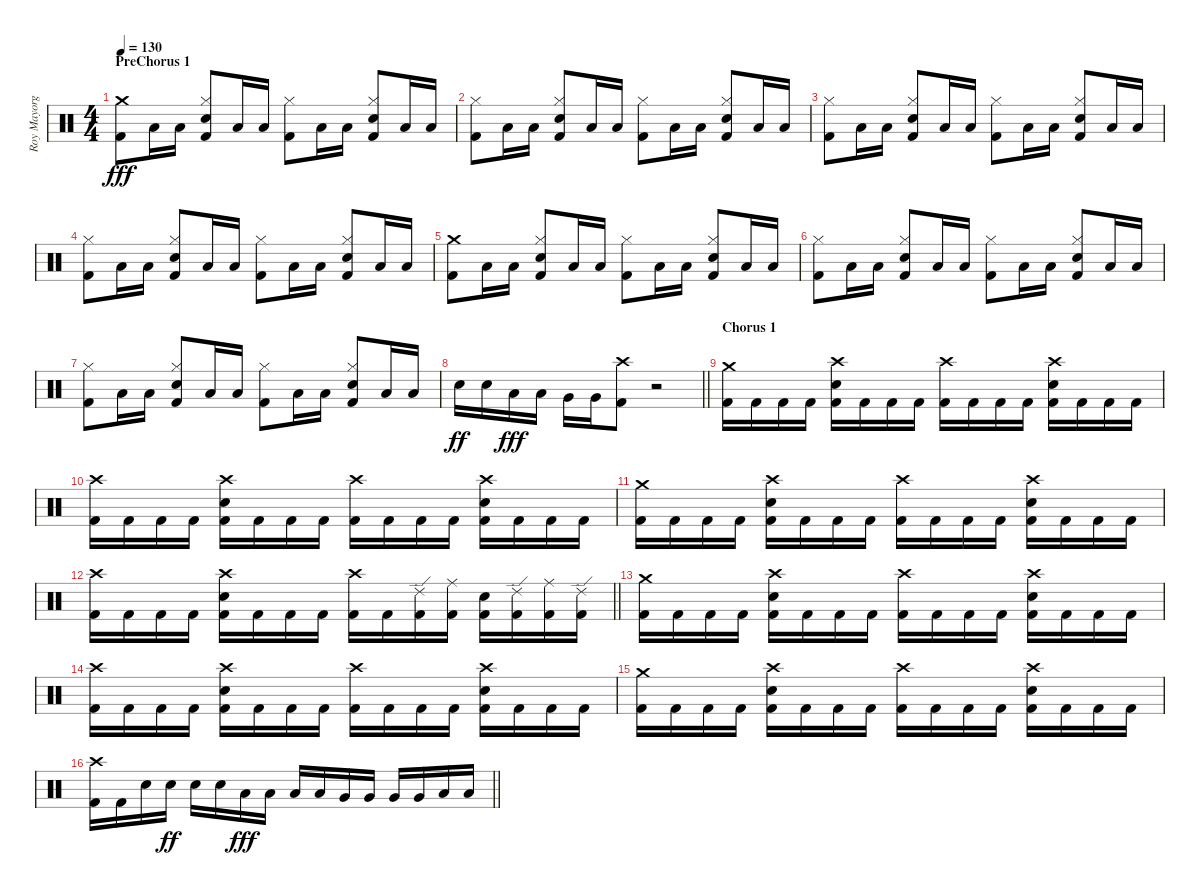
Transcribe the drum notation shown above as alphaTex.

\track ("Roy Mayorga" "Roy Mayorg") {instrument percussion}
\staff {score}
\articulation defaults
\ts (4 4)
\section ("" "PreChorus 1")
\tempo 130
\clef neutral
\ks c
("Crash medium (hit)" "Kick (hit) 2").8{dy fff} "Low Floor Tom (hit)".16 "Low Floor Tom (hit)".16 ("Hi-Hat (closed)" "Electric Snare (hit)" "Kick (hit) 2").8 "Low Floor Tom (hit)".16 "Low Floor Tom (hit)".16 ("Hi-Hat (closed)" "Kick (hit) 2").8 "Low Floor Tom (hit)".16 "Low Floor Tom (hit)".16 ("Hi-Hat (closed)" "Electric Snare (hit)" "Kick (hit) 2").8 "Low Floor Tom (hit)".16 "Low Floor Tom (hit)".16 |
("Hi-Hat (closed)" "Kick (hit) 2").8 "Low Floor Tom (hit)".16 "Low Floor Tom (hit)".16 ("Hi-Hat (closed)" "Electric Snare (hit)" "Kick (hit) 2").8 "Low Floor Tom (hit)".16 "Low Floor Tom (hit)".16 ("Hi-Hat (closed)" "Kick (hit) 2").8 "Low Floor Tom (hit)".16 "Low Floor Tom (hit)".16 ("Hi-Hat (closed)" "Electric Snare (hit)" "Kick (hit) 2").8 "Low Floor Tom (hit)".16 "Low Floor Tom (hit)".16 |
("Hi-Hat (closed)" "Kick (hit) 2").8 "Low Floor Tom (hit)".16 "Low Floor Tom (hit)".16 ("Hi-Hat (closed)" "Electric Snare (hit)" "Kick (hit) 2").8 "Low Floor Tom (hit)".16 "Low Floor Tom (hit)".16 ("Hi-Hat (closed)" "Kick (hit) 2").8 "Low Floor Tom (hit)".16 "Low Floor Tom (hit)".16 ("Hi-Hat (closed)" "Electric Snare (hit)" "Kick (hit) 2").8 "Low Floor Tom (hit)".16 "Low Floor Tom (hit)".16 |
("Hi-Hat (closed)" "Kick (hit) 2").8 "Low Floor Tom (hit)".16 "Low Floor Tom (hit)".16 ("Hi-Hat (closed)" "Electric Snare (hit)" "Kick (hit) 2").8 "Low Floor Tom (hit)".16 "Low Floor Tom (hit)".16 ("Hi-Hat (closed)" "Kick (hit) 2").8 "Low Floor Tom (hit)".16 "Low Floor Tom (hit)".16 ("Hi-Hat (closed)" "Electric Snare (hit)" "Kick (hit) 2").8 "Low Floor Tom (hit)".16 "Low Floor Tom (hit)".16 |
("Crash medium (hit)" "Kick (hit) 2").8 "Low Floor Tom (hit)".16 "Low Floor Tom (hit)".16 ("Hi-Hat (closed)" "Electric Snare (hit)" "Kick (hit) 2").8 "Low Floor Tom (hit)".16 "Low Floor Tom (hit)".16 ("Hi-Hat (closed)" "Kick (hit) 2").8 "Low Floor Tom (hit)".16 "Low Floor Tom (hit)".16 ("Hi-Hat (closed)" "Electric Snare (hit)" "Kick (hit) 2").8 "Low Floor Tom (hit)".16 "Low Floor Tom (hit)".16 |
("Hi-Hat (closed)" "Kick (hit) 2").8 "Low Floor Tom (hit)".16 "Low Floor Tom (hit)".16 ("Hi-Hat (closed)" "Electric Snare (hit)" "Kick (hit) 2").8 "Low Floor Tom (hit)".16 "Low Floor Tom (hit)".16 ("Hi-Hat (closed)" "Kick (hit) 2").8 "Low Floor Tom (hit)".16 "Low Floor Tom (hit)".16 ("Hi-Hat (closed)" "Electric Snare (hit)" "Kick (hit) 2").8 "Low Floor Tom (hit)".16 "Low Floor Tom (hit)".16 |
("Hi-Hat (closed)" "Kick (hit) 2").8 "Low Floor Tom (hit)".16 "Low Floor Tom (hit)".16 ("Hi-Hat (closed)" "Electric Snare (hit)" "Kick (hit) 2").8 "Low Floor Tom (hit)".16 "Low Floor Tom (hit)".16 ("Hi-Hat (closed)" "Kick (hit) 2").8 "Low Floor Tom (hit)".16 "Low Floor Tom (hit)".16 ("Hi-Hat (closed)" "Electric Snare (hit)" "Kick (hit) 2").8 "Low Floor Tom (hit)".16 "Low Floor Tom (hit)".16 |
\barLineRight lightlight "Electric Snare (hit)".16{dy ff} "Electric Snare (hit)".16 "Low Tom (hit)".16{dy fff} "Low Tom (hit)".16 "Very Low Tom (hit)".16 "Very Low Tom (hit)".16
("Crash high (hit)" "Kick (hit) 2").8 r.2 |
\section ("" "Chorus 1")
("Crash medium (hit)" "Kick (hit) 2").16 "Kick (hit) 2".16 "Kick (hit) 2".16 "Kick (hit) 2".16 ("Crash high (hit)" "Electric Snare (hit)" "Kick (hit) 2").16 "Kick (hit) 2".16 "Kick (hit) 2".16 "Kick (hit) 2".16 ("Crash high (hit)" "Kick (hit) 2").16 "Kick (hit) 2".16 "Kick (hit) 2".16 "Kick (hit) 2".16 ("Crash high (hit)" "Electric Snare (hit)" "Kick (hit) 2").16 "Kick (hit) 2".16 "Kick (hit) 2".16 "Kick (hit) 2".16 |
("Crash high (hit)" "Kick (hit) 2").16 "Kick (hit) 2".16 "Kick (hit) 2".16 "Kick (hit) 2".16 ("Crash high (hit)" "Electric Snare (hit)" "Kick (hit) 2").16 "Kick (hit) 2".16 "Kick (hit) 2".16 "Kick (hit) 2".16 ("Crash high (hit)" "Kick (hit) 2").16 "Kick (hit) 2".16 "Kick (hit) 2".16 "Kick (hit) 2".16 ("Crash high (hit)" "Electric Snare (hit)" "Kick (hit) 2").16 "Kick (hit) 2".16 "Kick (hit) 2".16 "Kick (hit) 2".16 |
("Crash medium (hit)" "Kick (hit) 2").16 "Kick (hit) 2".16 "Kick (hit) 2".16 "Kick (hit) 2".16 ("Crash high (hit)" "Electric Snare (hit)" "Kick (hit) 2").16 "Kick (hit) 2".16 "Kick (hit) 2".16 "Kick (hit) 2".16 ("Crash high (hit)" "Kick (hit) 2").16 "Kick (hit) 2".16 "Kick (hit) 2".16 "Kick (hit) 2".16 ("Crash high (hit)" "Electric Snare (hit)" "Kick (hit) 2").16 "Kick (hit) 2".16 "Kick (hit) 2".16 "Kick (hit) 2".16 |
\barLineRight lightlight
("Crash high (hit)" "Kick (hit) 2").16 "Kick (hit) 2".16 "Kick (hit) 2".16 "Kick (hit) 2".16 ("Crash high (hit)" "Electric Snare (hit)" "Kick (hit) 2").16 "Kick (hit) 2".16 "Kick (hit) 2".16 "Kick (hit) 2".16 ("Crash high (hit)" "Kick (hit) 2").16 "Kick (hit) 2".16 ("Ride (edge) 2" "Kick (hit) 2").16 ("Ride (middle)" "Kick (hit) 2").16 ("Electric Snare (hit)" "Kick (hit) 2").16 ("Ride (edge) 2" "Kick (hit) 2").16 ("Ride (middle)" "Kick (hit) 2").16 ("Ride (edge) 2" "Kick (hit) 2").16 |
("Crash medium (hit)" "Kick (hit) 2").16 "Kick (hit) 2".16 "Kick (hit) 2".16 "Kick (hit) 2".16 ("Crash high (hit)" "Electric Snare (hit)" "Kick (hit) 2").16 "Kick (hit) 2".16 "Kick (hit) 2".16 "Kick (hit) 2".16 ("Crash high (hit)" "Kick (hit) 2").16 "Kick (hit) 2".16 "Kick (hit) 2".16 "Kick (hit) 2".16 ("Crash high (hit)" "Electric Snare (hit)" "Kick (hit) 2").16 "Kick (hit) 2".16 "Kick (hit) 2".16 "Kick (hit) 2".16 |
("Crash high (hit)" "Kick (hit) 2").16 "Kick (hit) 2".16 "Kick (hit) 2".16 "Kick (hit) 2".16 ("Crash high (hit)" "Electric Snare (hit)" "Kick (hit) 2").16 "Kick (hit) 2".16 "Kick (hit) 2".16 "Kick (hit) 2".16 ("Crash high (hit)" "Kick (hit) 2").16 "Kick (hit) 2".16 "Kick (hit) 2".16 "Kick (hit) 2".16 ("Crash high (hit)" "Electric Snare (hit)" "Kick (hit) 2").16 "Kick (hit) 2".16 "Kick (hit) 2".16 "Kick (hit) 2".16 |
("Crash medium (hit)" "Kick (hit) 2").16 "Kick (hit) 2".16 "Kick (hit) 2".16 "Kick (hit) 2".16 ("Crash high (hit)" "Electric Snare (hit)" "Kick (hit) 2").16 "Kick (hit) 2".16 "Kick (hit) 2".16 "Kick (hit) 2".16 ("Crash high (hit)" "Kick (hit) 2").16 "Kick (hit) 2".16 "Kick (hit) 2".16 "Kick (hit) 2".16 ("Crash high (hit)" "Electric Snare (hit)" "Kick (hit) 2").16 "Kick (hit) 2".16 "Kick (hit) 2".16 "Kick (hit) 2".16 |
\barLineRight lightlight
("Crash high (hit)" "Kick (hit) 2").16 "Kick (hit) 2".16 "Electric Snare (hit)".16 "Electric Snare (hit)".16{dy ff} "Electric Snare (hit)".16 "Electric Snare (hit)".16 "Low Tom (hit)".16{dy fff} "Low Tom (hit)".16 "Low Tom (hit)".16 "Low Tom (hit)".16 "Very Low Tom (hit)".16 "Very Low Tom (hit)".16 "Very Low Tom (hit)".16 "Very Low Tom (hit)".16 "Low Floor Tom (hit)".16 "Low Floor Tom (hit)".16
